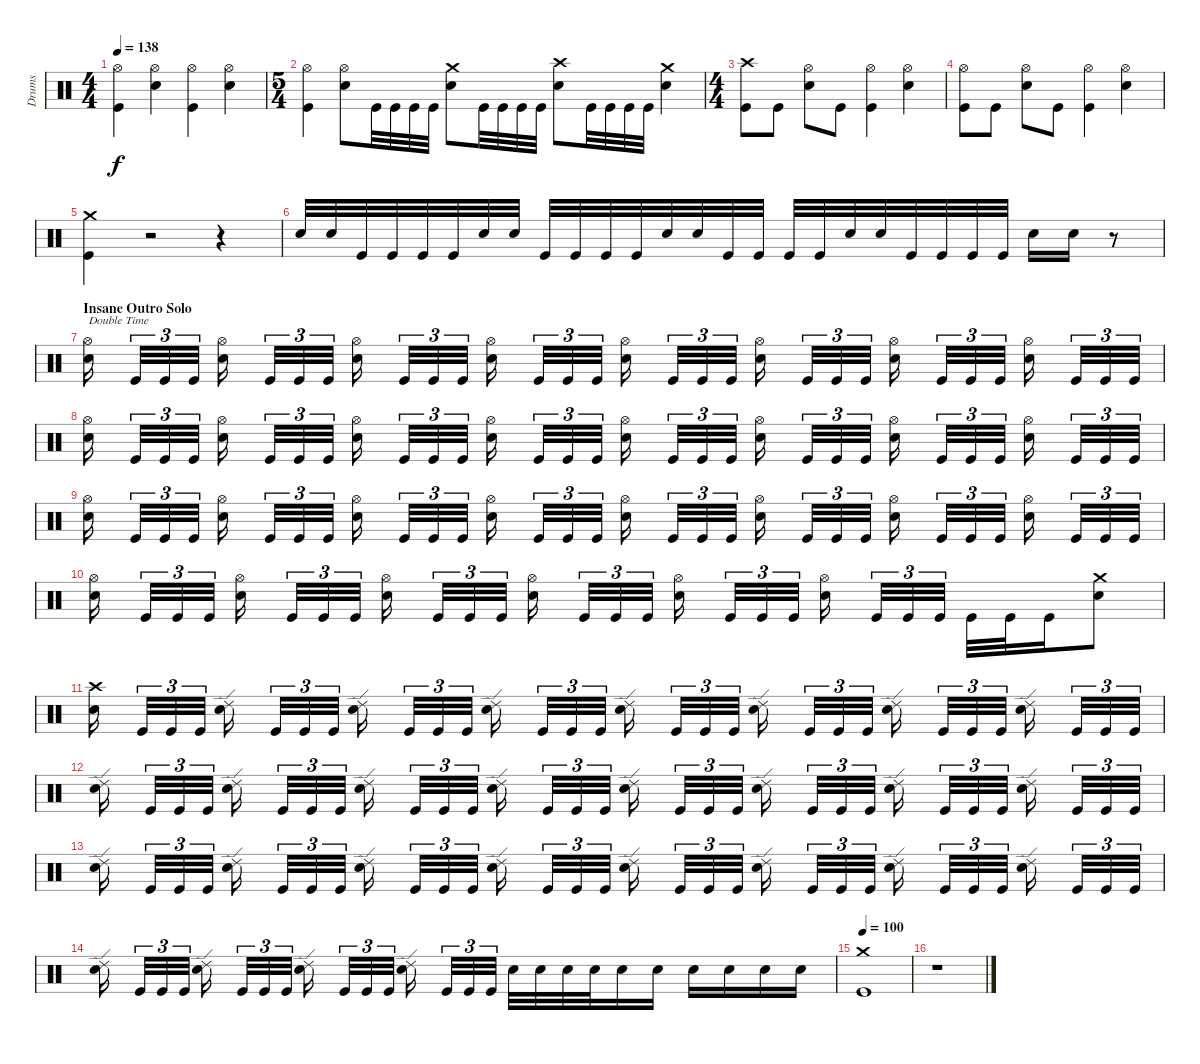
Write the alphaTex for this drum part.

\track ("Drums" "Drums") {instrument percussion}
\staff {score}
\articulation defaults
\ts (4 4)
\tempo 138
\clef neutral
\ks c
("Hi-Hat (open)" "Kick (hit)").4{dy f} ("Hi-Hat (open)" "Electric Snare (hit)").4 ("Hi-Hat (open)" "Kick (hit)").4 ("Hi-Hat (open)" "Electric Snare (hit)").4 |
\ts (5 4)
("Hi-Hat (open)" "Kick (hit)").4 ("Hi-Hat (open)" "Electric Snare (hit)").8 "Kick (hit)".32 "Kick (hit)".32 "Kick (hit)".32 "Kick (hit)".32 ("Crash medium (hit)" "Electric Snare (hit)").8 "Kick (hit)".32 "Kick (hit)".32 "Kick (hit)".32 "Kick (hit)".32 ("Crash high (hit)" "Electric Snare (hit)").8 "Kick (hit)".32 "Kick (hit)".32 "Kick (hit)".32 "Kick (hit)".32 ("Crash medium (hit)" "Electric Snare (hit)").4 |
\ts (4 4)
("Crash high (hit)" "Kick (hit)").8 "Kick (hit)".8 ("Hi-Hat (open)" "Electric Snare (hit)").8 "Kick (hit)".8 ("Hi-Hat (open)" "Kick (hit)").4 ("Hi-Hat (open)" "Electric Snare (hit)").4 |
("Hi-Hat (open)" "Kick (hit)").8 "Kick (hit)".8 ("Hi-Hat (open)" "Electric Snare (hit)").8 "Kick (hit)".8 ("Hi-Hat (open)" "Kick (hit)").4 ("Hi-Hat (open)" "Electric Snare (hit)").4 |
("Crash medium (hit)" "Kick (hit)").4 r.2 r.4 |
"Electric Snare (hit)".32 "Electric Snare (hit)".32 "Kick (hit)".32 "Kick (hit)".32 "Kick (hit)".32 "Kick (hit)".32 "Electric Snare (hit)".32 "Electric Snare (hit)".32 "Kick (hit)".32 "Kick (hit)".32 "Kick (hit)".32 "Kick (hit)".32 "Electric Snare (hit)".32 "Electric Snare (hit)".32 "Kick (hit)".32 "Kick (hit)".32 "Kick (hit)".32 "Kick (hit)".32 "Electric Snare (hit)".32 "Electric Snare (hit)".32 "Kick (hit)".32 "Kick (hit)".32 "Kick (hit)".32 "Kick (hit)".32 "Electric Snare (hit)".16 "Electric Snare (hit)".16 r.8 |
\section ("" "Insane Outro Solo")
("Hi-Hat (open)" "Electric Snare (hit)").16{txt "Double Time"} "Kick (hit)".32{tu (3 2)} "Kick (hit)".32{tu (3 2)} "Kick (hit)".32{tu (3 2)} ("Hi-Hat (open)" "Electric Snare (hit)").16 "Kick (hit)".32{tu (3 2)} "Kick (hit)".32{tu (3 2)} "Kick (hit)".32{tu (3 2)} ("Hi-Hat (open)" "Electric Snare (hit)").16 "Kick (hit)".32{tu (3 2)} "Kick (hit)".32{tu (3 2)} "Kick (hit)".32{tu (3 2)} ("Hi-Hat (open)" "Electric Snare (hit)").16 "Kick (hit)".32{tu (3 2)} "Kick (hit)".32{tu (3 2)} "Kick (hit)".32{tu (3 2)} ("Hi-Hat (open)" "Electric Snare (hit)").16 "Kick (hit)".32{tu (3 2)} "Kick (hit)".32{tu (3 2)} "Kick (hit)".32{tu (3 2)} ("Hi-Hat (open)" "Electric Snare (hit)").16 "Kick (hit)".32{tu (3 2)} "Kick (hit)".32{tu (3 2)} "Kick (hit)".32{tu (3 2)} ("Hi-Hat (open)" "Electric Snare (hit)").16 "Kick (hit)".32{tu (3 2)} "Kick (hit)".32{tu (3 2)} "Kick (hit)".32{tu (3 2)} ("Hi-Hat (open)" "Electric Snare (hit)").16 "Kick (hit)".32{tu (3 2)} "Kick (hit)".32{tu (3 2)} "Kick (hit)".32{tu (3 2)} |
("Hi-Hat (open)" "Electric Snare (hit)").16 "Kick (hit)".32{tu (3 2)} "Kick (hit)".32{tu (3 2)} "Kick (hit)".32{tu (3 2)} ("Hi-Hat (open)" "Electric Snare (hit)").16 "Kick (hit)".32{tu (3 2)} "Kick (hit)".32{tu (3 2)} "Kick (hit)".32{tu (3 2)} ("Hi-Hat (open)" "Electric Snare (hit)").16 "Kick (hit)".32{tu (3 2)} "Kick (hit)".32{tu (3 2)} "Kick (hit)".32{tu (3 2)} ("Hi-Hat (open)" "Electric Snare (hit)").16 "Kick (hit)".32{tu (3 2)} "Kick (hit)".32{tu (3 2)} "Kick (hit)".32{tu (3 2)} ("Hi-Hat (open)" "Electric Snare (hit)").16 "Kick (hit)".32{tu (3 2)} "Kick (hit)".32{tu (3 2)} "Kick (hit)".32{tu (3 2)} ("Hi-Hat (open)" "Electric Snare (hit)").16 "Kick (hit)".32{tu (3 2)} "Kick (hit)".32{tu (3 2)} "Kick (hit)".32{tu (3 2)} ("Hi-Hat (open)" "Electric Snare (hit)").16 "Kick (hit)".32{tu (3 2)} "Kick (hit)".32{tu (3 2)} "Kick (hit)".32{tu (3 2)} ("Hi-Hat (open)" "Electric Snare (hit)").16 "Kick (hit)".32{tu (3 2)} "Kick (hit)".32{tu (3 2)} "Kick (hit)".32{tu (3 2)} |
("Hi-Hat (open)" "Electric Snare (hit)").16 "Kick (hit)".32{tu (3 2)} "Kick (hit)".32{tu (3 2)} "Kick (hit)".32{tu (3 2)} ("Hi-Hat (open)" "Electric Snare (hit)").16 "Kick (hit)".32{tu (3 2)} "Kick (hit)".32{tu (3 2)} "Kick (hit)".32{tu (3 2)} ("Hi-Hat (open)" "Electric Snare (hit)").16 "Kick (hit)".32{tu (3 2)} "Kick (hit)".32{tu (3 2)} "Kick (hit)".32{tu (3 2)} ("Hi-Hat (open)" "Electric Snare (hit)").16 "Kick (hit)".32{tu (3 2)} "Kick (hit)".32{tu (3 2)} "Kick (hit)".32{tu (3 2)} ("Hi-Hat (open)" "Electric Snare (hit)").16 "Kick (hit)".32{tu (3 2)} "Kick (hit)".32{tu (3 2)} "Kick (hit)".32{tu (3 2)} ("Hi-Hat (open)" "Electric Snare (hit)").16 "Kick (hit)".32{tu (3 2)} "Kick (hit)".32{tu (3 2)} "Kick (hit)".32{tu (3 2)} ("Hi-Hat (open)" "Electric Snare (hit)").16 "Kick (hit)".32{tu (3 2)} "Kick (hit)".32{tu (3 2)} "Kick (hit)".32{tu (3 2)} ("Hi-Hat (open)" "Electric Snare (hit)").16 "Kick (hit)".32{tu (3 2)} "Kick (hit)".32{tu (3 2)} "Kick (hit)".32{tu (3 2)} |
("Hi-Hat (open)" "Electric Snare (hit)").16 "Kick (hit)".32{tu (3 2)} "Kick (hit)".32{tu (3 2)} "Kick (hit)".32{tu (3 2)} ("Hi-Hat (open)" "Electric Snare (hit)").16 "Kick (hit)".32{tu (3 2)} "Kick (hit)".32{tu (3 2)} "Kick (hit)".32{tu (3 2)} ("Hi-Hat (open)" "Electric Snare (hit)").16 "Kick (hit)".32{tu (3 2)} "Kick (hit)".32{tu (3 2)} "Kick (hit)".32{tu (3 2)} ("Hi-Hat (open)" "Electric Snare (hit)").16 "Kick (hit)".32{tu (3 2)} "Kick (hit)".32{tu (3 2)} "Kick (hit)".32{tu (3 2)} ("Hi-Hat (open)" "Electric Snare (hit)").16 "Kick (hit)".32{tu (3 2)} "Kick (hit)".32{tu (3 2)} "Kick (hit)".32{tu (3 2)} ("Hi-Hat (open)" "Electric Snare (hit)").16 "Kick (hit)".32{tu (3 2)} "Kick (hit)".32{tu (3 2)} "Kick (hit)".32{tu (3 2)} "Kick (hit)".32 "Kick (hit)".32 "Kick (hit)".16 ("Crash medium (hit)" "Electric Snare (hit)").8 |
("Crash high (hit)" "Electric Snare (hit)").16 "Kick (hit)".32{tu (3 2)} "Kick (hit)".32{tu (3 2)} "Kick (hit)".32{tu (3 2)} ("Ride (edge) 2" "Electric Snare (hit)").16 "Kick (hit)".32{tu (3 2)} "Kick (hit)".32{tu (3 2)} "Kick (hit)".32{tu (3 2)} ("Ride (edge) 2" "Electric Snare (hit)").16 "Kick (hit)".32{tu (3 2)} "Kick (hit)".32{tu (3 2)} "Kick (hit)".32{tu (3 2)} ("Ride (edge) 2" "Electric Snare (hit)").16 "Kick (hit)".32{tu (3 2)} "Kick (hit)".32{tu (3 2)} "Kick (hit)".32{tu (3 2)} ("Ride (edge) 2" "Electric Snare (hit)").16 "Kick (hit)".32{tu (3 2)} "Kick (hit)".32{tu (3 2)} "Kick (hit)".32{tu (3 2)} ("Ride (edge) 2" "Electric Snare (hit)").16 "Kick (hit)".32{tu (3 2)} "Kick (hit)".32{tu (3 2)} "Kick (hit)".32{tu (3 2)} ("Ride (edge) 2" "Electric Snare (hit)").16 "Kick (hit)".32{tu (3 2)} "Kick (hit)".32{tu (3 2)} "Kick (hit)".32{tu (3 2)} ("Ride (edge) 2" "Electric Snare (hit)").16 "Kick (hit)".32{tu (3 2)} "Kick (hit)".32{tu (3 2)} "Kick (hit)".32{tu (3 2)} |
("Ride (edge) 2" "Electric Snare (hit)").16 "Kick (hit)".32{tu (3 2)} "Kick (hit)".32{tu (3 2)} "Kick (hit)".32{tu (3 2)} ("Ride (edge) 2" "Electric Snare (hit)").16 "Kick (hit)".32{tu (3 2)} "Kick (hit)".32{tu (3 2)} "Kick (hit)".32{tu (3 2)} ("Ride (edge) 2" "Electric Snare (hit)").16 "Kick (hit)".32{tu (3 2)} "Kick (hit)".32{tu (3 2)} "Kick (hit)".32{tu (3 2)} ("Ride (edge) 2" "Electric Snare (hit)").16 "Kick (hit)".32{tu (3 2)} "Kick (hit)".32{tu (3 2)} "Kick (hit)".32{tu (3 2)} ("Ride (edge) 2" "Electric Snare (hit)").16 "Kick (hit)".32{tu (3 2)} "Kick (hit)".32{tu (3 2)} "Kick (hit)".32{tu (3 2)} ("Ride (edge) 2" "Electric Snare (hit)").16 "Kick (hit)".32{tu (3 2)} "Kick (hit)".32{tu (3 2)} "Kick (hit)".32{tu (3 2)} ("Ride (edge) 2" "Electric Snare (hit)").16 "Kick (hit)".32{tu (3 2)} "Kick (hit)".32{tu (3 2)} "Kick (hit)".32{tu (3 2)} ("Ride (edge) 2" "Electric Snare (hit)").16 "Kick (hit)".32{tu (3 2)} "Kick (hit)".32{tu (3 2)} "Kick (hit)".32{tu (3 2)} |
("Ride (edge) 2" "Electric Snare (hit)").16 "Kick (hit)".32{tu (3 2)} "Kick (hit)".32{tu (3 2)} "Kick (hit)".32{tu (3 2)} ("Ride (edge) 2" "Electric Snare (hit)").16 "Kick (hit)".32{tu (3 2)} "Kick (hit)".32{tu (3 2)} "Kick (hit)".32{tu (3 2)} ("Ride (edge) 2" "Electric Snare (hit)").16 "Kick (hit)".32{tu (3 2)} "Kick (hit)".32{tu (3 2)} "Kick (hit)".32{tu (3 2)} ("Ride (edge) 2" "Electric Snare (hit)").16 "Kick (hit)".32{tu (3 2)} "Kick (hit)".32{tu (3 2)} "Kick (hit)".32{tu (3 2)} ("Ride (edge) 2" "Electric Snare (hit)").16 "Kick (hit)".32{tu (3 2)} "Kick (hit)".32{tu (3 2)} "Kick (hit)".32{tu (3 2)} ("Ride (edge) 2" "Electric Snare (hit)").16 "Kick (hit)".32{tu (3 2)} "Kick (hit)".32{tu (3 2)} "Kick (hit)".32{tu (3 2)} ("Ride (edge) 2" "Electric Snare (hit)").16 "Kick (hit)".32{tu (3 2)} "Kick (hit)".32{tu (3 2)} "Kick (hit)".32{tu (3 2)} ("Ride (edge) 2" "Electric Snare (hit)").16 "Kick (hit)".32{tu (3 2)} "Kick (hit)".32{tu (3 2)} "Kick (hit)".32{tu (3 2)} |
("Ride (edge) 2" "Electric Snare (hit)").16 "Kick (hit)".32{tu (3 2)} "Kick (hit)".32{tu (3 2)} "Kick (hit)".32{tu (3 2)} ("Ride (edge) 2" "Electric Snare (hit)").16 "Kick (hit)".32{tu (3 2)} "Kick (hit)".32{tu (3 2)} "Kick (hit)".32{tu (3 2)} ("Ride (edge) 2" "Electric Snare (hit)").16 "Kick (hit)".32{tu (3 2)} "Kick (hit)".32{tu (3 2)} "Kick (hit)".32{tu (3 2)} ("Ride (edge) 2" "Electric Snare (hit)").16 "Kick (hit)".32{tu (3 2)} "Kick (hit)".32{tu (3 2)} "Kick (hit)".32{tu (3 2)} "Electric Snare (hit)".32 "Electric Snare (hit)".32 "Electric Snare (hit)".32 "Electric Snare (hit)".32 "Electric Snare (hit)".16 "Electric Snare (hit)".16 "Electric Snare (hit)".16 "Electric Snare (hit)".16 "Electric Snare (hit)".16 "Electric Snare (hit)".16 |
\tempo 100
("Crash medium (hit)" "Kick (hit)").1 |
r.1
